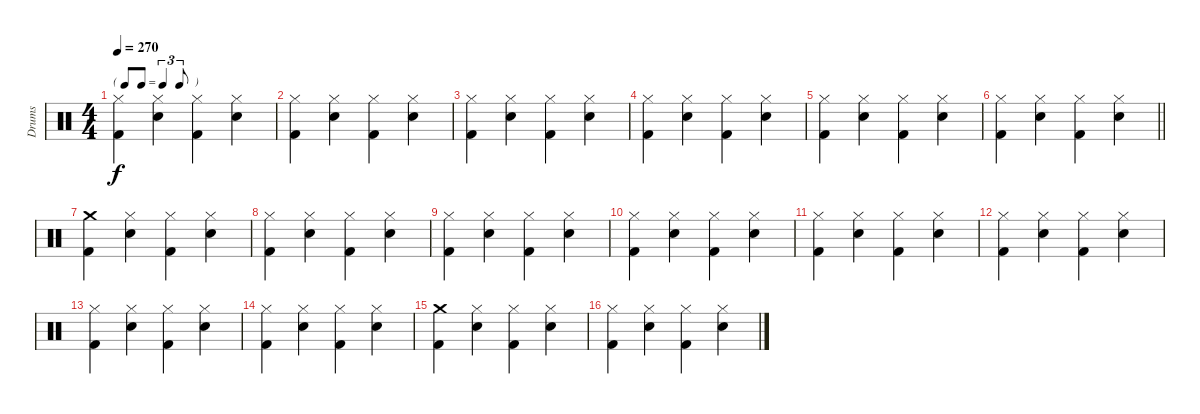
\track ("Drums" "Drums") {instrument percussion}
\staff {score}
\articulation defaults
\ts (4 4)
\tf triplet8th
\tempo 270
\clef neutral
\ks c
("Hi-Hat (closed)" "Kick (hit) 2").4{dy f} ("Snare (hit) 2" "Hi-Hat (closed)").4 ("Hi-Hat (closed)" "Kick (hit) 2").4 ("Snare (hit) 2" "Hi-Hat (closed)").4 |
("Hi-Hat (closed)" "Kick (hit) 2").4 ("Snare (hit) 2" "Hi-Hat (closed)").4 ("Hi-Hat (closed)" "Kick (hit) 2").4 ("Snare (hit) 2" "Hi-Hat (closed)").4 |
("Hi-Hat (closed)" "Kick (hit) 2").4 ("Snare (hit) 2" "Hi-Hat (closed)").4 ("Hi-Hat (closed)" "Kick (hit) 2").4 ("Snare (hit) 2" "Hi-Hat (closed)").4 |
("Hi-Hat (closed)" "Kick (hit) 2").4 ("Snare (hit) 2" "Hi-Hat (closed)").4 ("Hi-Hat (closed)" "Kick (hit) 2").4 ("Snare (hit) 2" "Hi-Hat (closed)").4 |
("Hi-Hat (closed)" "Kick (hit) 2").4 ("Snare (hit) 2" "Hi-Hat (closed)").4 ("Hi-Hat (closed)" "Kick (hit) 2").4 ("Snare (hit) 2" "Hi-Hat (closed)").4 |
\barLineRight lightlight
("Hi-Hat (closed)" "Kick (hit) 2").4 ("Snare (hit) 2" "Hi-Hat (closed)").4 ("Hi-Hat (closed)" "Kick (hit) 2").4 ("Snare (hit) 2" "Hi-Hat (closed)").4 |
("Crash medium (hit)" "Kick (hit) 2").4 ("Snare (hit) 2" "Hi-Hat (closed)").4 ("Hi-Hat (closed)" "Kick (hit) 2").4 ("Snare (hit) 2" "Hi-Hat (closed)").4 |
("Hi-Hat (closed)" "Kick (hit) 2").4 ("Snare (hit) 2" "Hi-Hat (closed)").4 ("Hi-Hat (closed)" "Kick (hit) 2").4 ("Snare (hit) 2" "Hi-Hat (closed)").4 |
("Hi-Hat (closed)" "Kick (hit) 2").4 ("Snare (hit) 2" "Hi-Hat (closed)").4 ("Hi-Hat (closed)" "Kick (hit) 2").4 ("Snare (hit) 2" "Hi-Hat (closed)").4 |
("Hi-Hat (closed)" "Kick (hit) 2").4 ("Snare (hit) 2" "Hi-Hat (closed)").4 ("Hi-Hat (closed)" "Kick (hit) 2").4 ("Snare (hit) 2" "Hi-Hat (closed)").4 |
("Hi-Hat (closed)" "Kick (hit) 2").4 ("Snare (hit) 2" "Hi-Hat (closed)").4 ("Hi-Hat (closed)" "Kick (hit) 2").4 ("Snare (hit) 2" "Hi-Hat (closed)").4 |
("Hi-Hat (closed)" "Kick (hit) 2").4 ("Snare (hit) 2" "Hi-Hat (closed)").4 ("Hi-Hat (closed)" "Kick (hit) 2").4 ("Snare (hit) 2" "Hi-Hat (closed)").4 |
("Hi-Hat (closed)" "Kick (hit) 2").4 ("Snare (hit) 2" "Hi-Hat (closed)").4 ("Hi-Hat (closed)" "Kick (hit) 2").4 ("Snare (hit) 2" "Hi-Hat (closed)").4 |
("Hi-Hat (closed)" "Kick (hit) 2").4 ("Snare (hit) 2" "Hi-Hat (closed)").4 ("Hi-Hat (closed)" "Kick (hit) 2").4 ("Snare (hit) 2" "Hi-Hat (closed)").4 |
("Crash medium (hit)" "Kick (hit) 2").4 ("Snare (hit) 2" "Hi-Hat (closed)").4 ("Hi-Hat (closed)" "Kick (hit) 2").4 ("Snare (hit) 2" "Hi-Hat (closed)").4 |
("Hi-Hat (closed)" "Kick (hit) 2").4 ("Snare (hit) 2" "Hi-Hat (closed)").4 ("Hi-Hat (closed)" "Kick (hit) 2").4 ("Snare (hit) 2" "Hi-Hat (closed)").4
